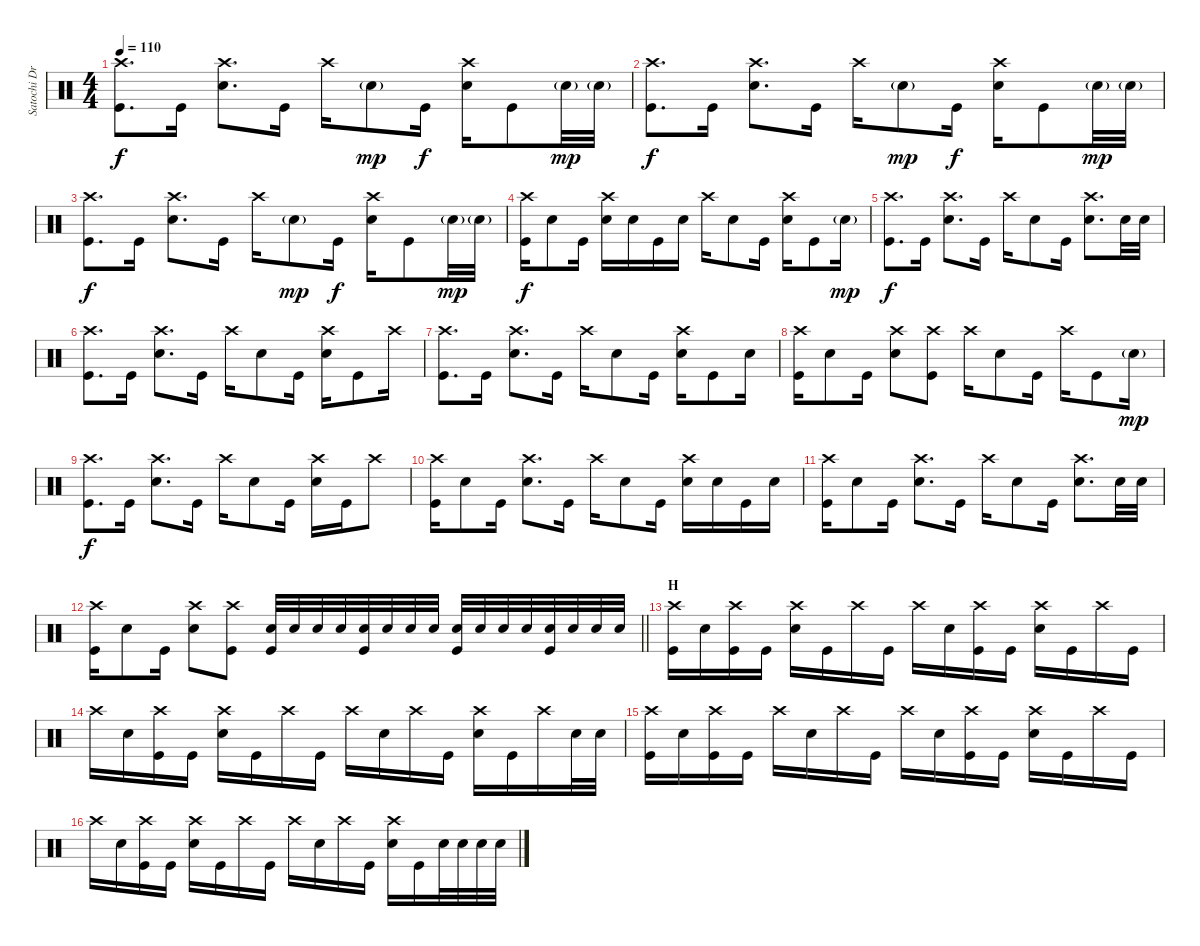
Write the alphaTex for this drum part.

\track ("Satochi Drums" "Satochi Dr") {instrument percussion}
\staff {score}
\articulation defaults
\ts (4 4)
\tempo 110
\clef neutral
\ks c
("Crash high (hit)" "Kick (hit)").8{d dy f} "Kick (hit)".16 ("Crash high (hit)" "Electric Snare (hit)").8{d} "Kick (hit)".16 "Crash high (hit)".16 "Electric Snare (hit)"{g}.8{dy mp} "Kick (hit)".16{dy f} ("Crash high (hit)" "Electric Snare (hit)").16 "Kick (hit)".8 "Electric Snare (hit)"{g}.32{dy mp} "Electric Snare (hit)"{g}.32 |
("Crash high (hit)" "Kick (hit)").8{d dy f} "Kick (hit)".16 ("Crash high (hit)" "Electric Snare (hit)").8{d} "Kick (hit)".16 "Crash high (hit)".16 "Electric Snare (hit)"{g}.8{dy mp} "Kick (hit)".16{dy f} ("Crash high (hit)" "Electric Snare (hit)").16 "Kick (hit)".8 "Electric Snare (hit)"{g}.32{dy mp} "Electric Snare (hit)"{g}.32 |
("Crash high (hit)" "Kick (hit)").8{d dy f} "Kick (hit)".16 ("Crash high (hit)" "Electric Snare (hit)").8{d} "Kick (hit)".16 "Crash high (hit)".16 "Electric Snare (hit)"{g}.8{dy mp} "Kick (hit)".16{dy f} ("Crash high (hit)" "Electric Snare (hit)").16 "Kick (hit)".8 "Electric Snare (hit)"{g}.32{dy mp} "Electric Snare (hit)"{g}.32 |
("Crash high (hit)" "Kick (hit)").16{dy f} "Electric Snare (hit)".8 "Kick (hit)".16 ("Crash high (hit)" "Electric Snare (hit)").16 "Electric Snare (hit)".16 "Kick (hit)".16 "Electric Snare (hit)".16 "Crash high (hit)".16 "Electric Snare (hit)".8 "Kick (hit)".16 ("Crash high (hit)" "Electric Snare (hit)").16 "Kick (hit)".8 "Electric Snare (hit)"{g}.16{dy mp} |
("Crash high (hit)" "Kick (hit)").8{d dy f} "Kick (hit)".16 ("Crash high (hit)" "Electric Snare (hit)").8{d} "Kick (hit)".16 "Crash high (hit)".16 "Electric Snare (hit)".8 "Kick (hit)".16 ("Crash high (hit)" "Electric Snare (hit)").8{d} "Electric Snare (hit)".32 "Electric Snare (hit)".32 |
("Crash high (hit)" "Kick (hit)").8{d} "Kick (hit)".16 ("Crash high (hit)" "Electric Snare (hit)").8{d} "Kick (hit)".16 "Crash high (hit)".16 "Electric Snare (hit)".8 "Kick (hit)".16 ("Crash high (hit)" "Electric Snare (hit)").16 "Kick (hit)".8 "Crash high (hit)".16 |
("Crash high (hit)" "Kick (hit)").8{d} "Kick (hit)".16 ("Crash high (hit)" "Electric Snare (hit)").8{d} "Kick (hit)".16 "Crash high (hit)".16 "Electric Snare (hit)".8 "Kick (hit)".16 ("Crash high (hit)" "Electric Snare (hit)").16 "Kick (hit)".8 "Electric Snare (hit)".16 |
("Crash high (hit)" "Kick (hit)").16 "Electric Snare (hit)".8 "Kick (hit)".16 ("Crash high (hit)" "Electric Snare (hit)").8 ("Crash high (hit)" "Kick (hit)").8 "Crash high (hit)".16 "Electric Snare (hit)".8 "Kick (hit)".16 "Crash high (hit)".16 "Kick (hit)".8 "Electric Snare (hit)"{g}.16{dy mp} |
("Crash high (hit)" "Kick (hit)").8{d dy f} "Kick (hit)".16 ("Crash high (hit)" "Electric Snare (hit)").8{d} "Kick (hit)".16 "Crash high (hit)".16 "Electric Snare (hit)".8 "Kick (hit)".16 ("Crash high (hit)" "Electric Snare (hit)").16 "Kick (hit)".16 "Crash high (hit)".8 |
("Crash high (hit)" "Kick (hit)").16 "Electric Snare (hit)".8 "Kick (hit)".16 ("Crash high (hit)" "Electric Snare (hit)").8{d} "Kick (hit)".16 "Crash high (hit)".16 "Electric Snare (hit)".8 "Kick (hit)".16 ("Crash high (hit)" "Electric Snare (hit)").16 "Electric Snare (hit)".16 "Kick (hit)".16 "Electric Snare (hit)".16 |
("Crash high (hit)" "Kick (hit)").16 "Electric Snare (hit)".8 "Kick (hit)".16 ("Crash high (hit)" "Electric Snare (hit)").8{d} "Kick (hit)".16 "Crash high (hit)".16 "Electric Snare (hit)".8 "Kick (hit)".16 ("Crash high (hit)" "Electric Snare (hit)").8{d} "Electric Snare (hit)".32 "Electric Snare (hit)".32 |
\barLineRight lightlight
("Crash high (hit)" "Kick (hit)").16 "Electric Snare (hit)".8 "Kick (hit)".16 ("Crash high (hit)" "Electric Snare (hit)").8 ("Crash high (hit)" "Kick (hit)").8 ("Electric Snare (hit)" "Kick (hit)").32 "Electric Snare (hit)".32 "Electric Snare (hit)".32 "Electric Snare (hit)".32 ("Electric Snare (hit)" "Kick (hit)").32 "Electric Snare (hit)".32 "Electric Snare (hit)".32 "Electric Snare (hit)".32 ("Electric Snare (hit)" "Kick (hit)").32 "Electric Snare (hit)".32 "Electric Snare (hit)".32 "Electric Snare (hit)".32 ("Electric Snare (hit)" "Kick (hit)").32 "Electric Snare (hit)".32 "Electric Snare (hit)".32 "Electric Snare (hit)".32 |
\section ("" "H")
("Crash high (hit)" "Kick (hit)").16 "Electric Snare (hit)".16 ("Crash high (hit)" "Kick (hit)").16 "Kick (hit)".16 ("Crash high (hit)" "Electric Snare (hit)").16 "Kick (hit)".16 "Crash high (hit)".16 "Kick (hit)".16 "Crash high (hit)".16 "Electric Snare (hit)".16 ("Crash high (hit)" "Kick (hit)").16 "Kick (hit)".16 ("Crash high (hit)" "Electric Snare (hit)").16 "Kick (hit)".16 "Crash high (hit)".16 "Kick (hit)".16 |
"Crash high (hit)".16 "Electric Snare (hit)".16 ("Crash high (hit)" "Kick (hit)").16 "Kick (hit)".16 ("Crash high (hit)" "Electric Snare (hit)").16 "Kick (hit)".16 "Crash high (hit)".16 "Kick (hit)".16 "Crash high (hit)".16 "Electric Snare (hit)".16 "Crash high (hit)".16 "Kick (hit)".16 ("Crash high (hit)" "Electric Snare (hit)").16 "Kick (hit)".16 "Crash high (hit)".16 "Electric Snare (hit)".32 "Electric Snare (hit)".32 |
("Crash high (hit)" "Kick (hit)").16 "Electric Snare (hit)".16 ("Crash high (hit)" "Kick (hit)").16 "Kick (hit)".16 "Crash high (hit)".16 "Electric Snare (hit)".16 "Crash high (hit)".16 "Kick (hit)".16 "Crash high (hit)".16 "Electric Snare (hit)".16 ("Crash high (hit)" "Kick (hit)").16 "Kick (hit)".16 ("Crash high (hit)" "Electric Snare (hit)").16 "Kick (hit)".16 "Crash high (hit)".16 "Kick (hit)".16 |
"Crash high (hit)".16 "Electric Snare (hit)".16 ("Crash high (hit)" "Kick (hit)").16 "Kick (hit)".16 ("Crash high (hit)" "Electric Snare (hit)").16 "Kick (hit)".16 "Crash high (hit)".16 "Kick (hit)".16 "Crash high (hit)".16 "Electric Snare (hit)".16 "Crash high (hit)".16 "Kick (hit)".16 ("Crash high (hit)" "Electric Snare (hit)").16 "Kick (hit)".16 "Electric Snare (hit)".32 "Electric Snare (hit)".32 "Electric Snare (hit)".32 "Electric Snare (hit)".32
